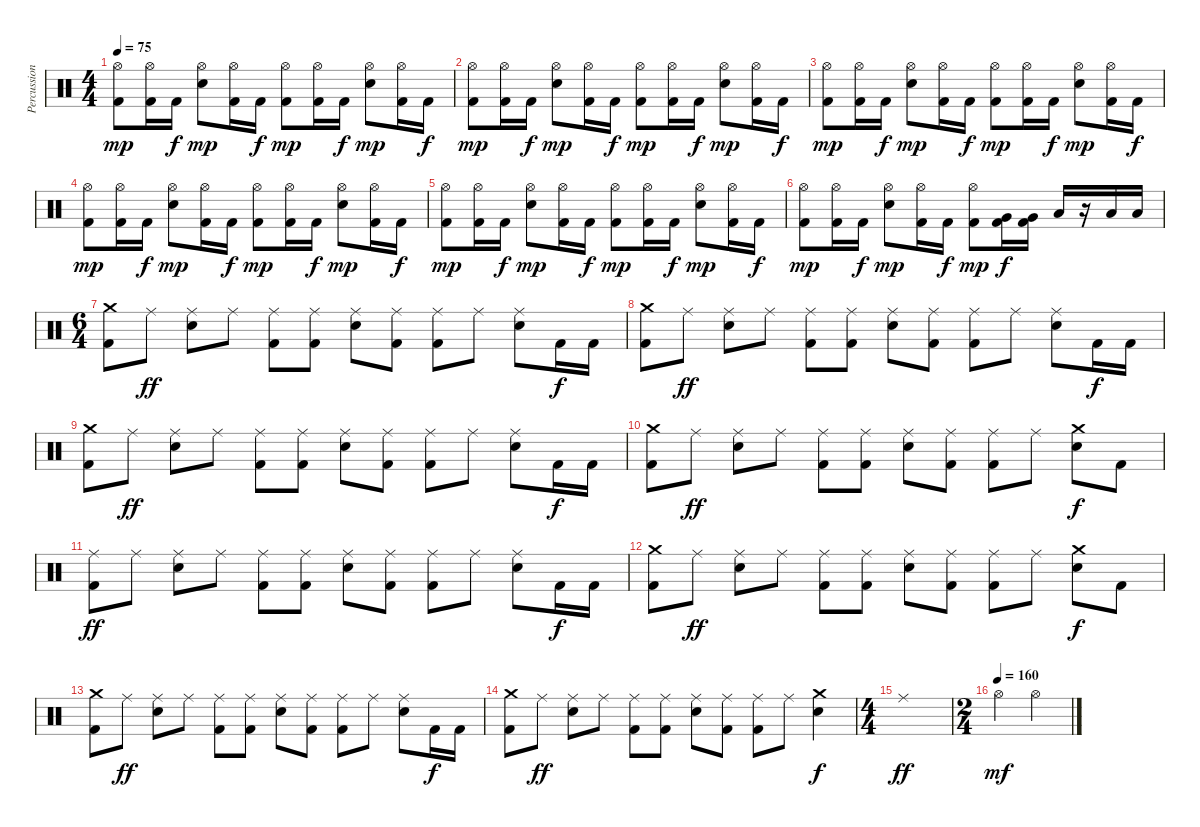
\track ("Percussioni" "Percussion") {instrument percussion}
\staff {score}
\articulation defaults
\ts (4 4)
\tempo 75
\clef neutral
\ks c
("Kick (hit) 2" "Hi-Hat (open)").8{dy mp} ("Kick (hit) 2" "Hi-Hat (open)").16 "Kick (hit) 2".16{dy f} ("Snare (hit) 2" "Hi-Hat (open)").8{dy mp} ("Kick (hit) 2" "Hi-Hat (open)").16 "Kick (hit) 2".16{dy f} ("Kick (hit) 2" "Hi-Hat (open)").8{dy mp} ("Kick (hit) 2" "Hi-Hat (open)").16 "Kick (hit) 2".16{dy f} ("Snare (hit) 2" "Hi-Hat (open)").8{dy mp} ("Kick (hit) 2" "Hi-Hat (open)").16 "Kick (hit) 2".16{dy f} |
("Kick (hit) 2" "Hi-Hat (open)").8{dy mp} ("Kick (hit) 2" "Hi-Hat (open)").16 "Kick (hit) 2".16{dy f} ("Snare (hit) 2" "Hi-Hat (open)").8{dy mp} ("Kick (hit) 2" "Hi-Hat (open)").16 "Kick (hit) 2".16{dy f} ("Kick (hit) 2" "Hi-Hat (open)").8{dy mp} ("Kick (hit) 2" "Hi-Hat (open)").16 "Kick (hit) 2".16{dy f} ("Snare (hit) 2" "Hi-Hat (open)").8{dy mp} ("Kick (hit) 2" "Hi-Hat (open)").16 "Kick (hit) 2".16{dy f} |
("Kick (hit) 2" "Hi-Hat (open)").8{dy mp} ("Kick (hit) 2" "Hi-Hat (open)").16 "Kick (hit) 2".16{dy f} ("Snare (hit) 2" "Hi-Hat (open)").8{dy mp} ("Kick (hit) 2" "Hi-Hat (open)").16 "Kick (hit) 2".16{dy f} ("Kick (hit) 2" "Hi-Hat (open)").8{dy mp} ("Kick (hit) 2" "Hi-Hat (open)").16 "Kick (hit) 2".16{dy f} ("Snare (hit) 2" "Hi-Hat (open)").8{dy mp} ("Kick (hit) 2" "Hi-Hat (open)").16 "Kick (hit) 2".16{dy f} |
("Kick (hit) 2" "Hi-Hat (open)").8{dy mp} ("Kick (hit) 2" "Hi-Hat (open)").16 "Kick (hit) 2".16{dy f} ("Snare (hit) 2" "Hi-Hat (open)").8{dy mp} ("Kick (hit) 2" "Hi-Hat (open)").16 "Kick (hit) 2".16{dy f} ("Kick (hit) 2" "Hi-Hat (open)").8{dy mp} ("Kick (hit) 2" "Hi-Hat (open)").16 "Kick (hit) 2".16{dy f} ("Snare (hit) 2" "Hi-Hat (open)").8{dy mp} ("Kick (hit) 2" "Hi-Hat (open)").16 "Kick (hit) 2".16{dy f} |
("Kick (hit) 2" "Hi-Hat (open)").8{dy mp} ("Kick (hit) 2" "Hi-Hat (open)").16 "Kick (hit) 2".16{dy f} ("Snare (hit) 2" "Hi-Hat (open)").8{dy mp} ("Kick (hit) 2" "Hi-Hat (open)").16 "Kick (hit) 2".16{dy f} ("Kick (hit) 2" "Hi-Hat (open)").8{dy mp} ("Kick (hit) 2" "Hi-Hat (open)").16 "Kick (hit) 2".16{dy f} ("Snare (hit) 2" "Hi-Hat (open)").8{dy mp} ("Kick (hit) 2" "Hi-Hat (open)").16 "Kick (hit) 2".16{dy f} |
("Kick (hit) 2" "Hi-Hat (open)").8{dy mp} ("Kick (hit) 2" "Hi-Hat (open)").16 "Kick (hit) 2".16{dy f} ("Snare (hit) 2" "Hi-Hat (open)").8{dy mp} ("Kick (hit) 2" "Hi-Hat (open)").16 "Kick (hit) 2".16{dy f} ("Kick (hit) 2" "Hi-Hat (open)").8{dy mp} ("Kick (hit) 2" "Very Low Tom (hit)").16{dy f} ("Kick (hit) 2" "Very Low Tom (hit)").16 "Low Tom (hit)".16 r.16 "Low Tom (hit)".16 "Low Tom (hit)".16 |
\ts (6 4)
("Kick (hit) 2" "Crash medium (hit)").8 "Ride (middle)".8{dy ff} ("Snare (hit) 2" "Ride (middle)").8 "Ride (middle)".8 ("Kick (hit) 2" "Ride (middle)").8 ("Kick (hit) 2" "Ride (middle)").8 ("Snare (hit) 2" "Ride (middle)").8 ("Kick (hit) 2" "Ride (middle)").8 ("Kick (hit) 2" "Ride (middle)").8 "Ride (middle)".8 ("Snare (hit) 2" "Ride (middle)").8 "Kick (hit) 2".16{dy f} "Kick (hit) 2".16 |
("Kick (hit) 2" "Crash medium (hit)").8 "Ride (middle)".8{dy ff} ("Snare (hit) 2" "Ride (middle)").8 "Ride (middle)".8 ("Kick (hit) 2" "Ride (middle)").8 ("Kick (hit) 2" "Ride (middle)").8 ("Snare (hit) 2" "Ride (middle)").8 ("Kick (hit) 2" "Ride (middle)").8 ("Kick (hit) 2" "Ride (middle)").8 "Ride (middle)".8 ("Snare (hit) 2" "Ride (middle)").8 "Kick (hit) 2".16{dy f} "Kick (hit) 2".16 |
("Kick (hit) 2" "Crash medium (hit)").8 "Ride (middle)".8{dy ff} ("Snare (hit) 2" "Ride (middle)").8 "Ride (middle)".8 ("Kick (hit) 2" "Ride (middle)").8 ("Kick (hit) 2" "Ride (middle)").8 ("Snare (hit) 2" "Ride (middle)").8 ("Kick (hit) 2" "Ride (middle)").8 ("Kick (hit) 2" "Ride (middle)").8 "Ride (middle)".8 ("Snare (hit) 2" "Ride (middle)").8 "Kick (hit) 2".16{dy f} "Kick (hit) 2".16 |
("Kick (hit) 2" "Crash medium (hit)").8 "Ride (middle)".8{dy ff} ("Snare (hit) 2" "Ride (middle)").8 "Ride (middle)".8 ("Kick (hit) 2" "Ride (middle)").8 ("Kick (hit) 2" "Ride (middle)").8 ("Snare (hit) 2" "Ride (middle)").8 ("Kick (hit) 2" "Ride (middle)").8 ("Kick (hit) 2" "Ride (middle)").8 "Ride (middle)".8 ("Snare (hit) 2" "Crash medium (hit)").8{dy f} "Kick (hit) 2".8 |
("Kick (hit) 2" "Ride (middle)").8{dy ff} "Ride (middle)".8 ("Snare (hit) 2" "Ride (middle)").8 "Ride (middle)".8 ("Kick (hit) 2" "Ride (middle)").8 ("Kick (hit) 2" "Ride (middle)").8 ("Snare (hit) 2" "Ride (middle)").8 ("Kick (hit) 2" "Ride (middle)").8 ("Kick (hit) 2" "Ride (middle)").8 "Ride (middle)".8 ("Snare (hit) 2" "Ride (middle)").8 "Kick (hit) 2".16{dy f} "Kick (hit) 2".16 |
("Kick (hit) 2" "Crash medium (hit)").8 "Ride (middle)".8{dy ff} ("Snare (hit) 2" "Ride (middle)").8 "Ride (middle)".8 ("Kick (hit) 2" "Ride (middle)").8 ("Kick (hit) 2" "Ride (middle)").8 ("Snare (hit) 2" "Ride (middle)").8 ("Kick (hit) 2" "Ride (middle)").8 ("Kick (hit) 2" "Ride (middle)").8 "Ride (middle)".8 ("Snare (hit) 2" "Crash medium (hit)").8{dy f} "Kick (hit) 2".8 |
("Kick (hit) 2" "Crash medium (hit)").8 "Ride (middle)".8{dy ff} ("Snare (hit) 2" "Ride (middle)").8 "Ride (middle)".8 ("Kick (hit) 2" "Ride (middle)").8 ("Kick (hit) 2" "Ride (middle)").8 ("Snare (hit) 2" "Ride (middle)").8 ("Kick (hit) 2" "Ride (middle)").8 ("Kick (hit) 2" "Ride (middle)").8 "Ride (middle)".8 ("Snare (hit) 2" "Ride (middle)").8 "Kick (hit) 2".16{dy f} "Kick (hit) 2".16 |
("Kick (hit) 2" "Crash medium (hit)").8 "Ride (middle)".8{dy ff} ("Snare (hit) 2" "Ride (middle)").8 "Ride (middle)".8 ("Kick (hit) 2" "Ride (middle)").8 ("Kick (hit) 2" "Ride (middle)").8 ("Snare (hit) 2" "Ride (middle)").8 ("Kick (hit) 2" "Ride (middle)").8 ("Kick (hit) 2" "Ride (middle)").8 "Ride (middle)".8 ("Snare (hit) 2" "Crash medium (hit)").4{dy f} |
\ts (4 4)
"Ride (middle)".1{dy ff} |
\ts (2 4)
\tempo (160)
"Hi-Hat (open)".4{dy mf} "Hi-Hat (open)".4
